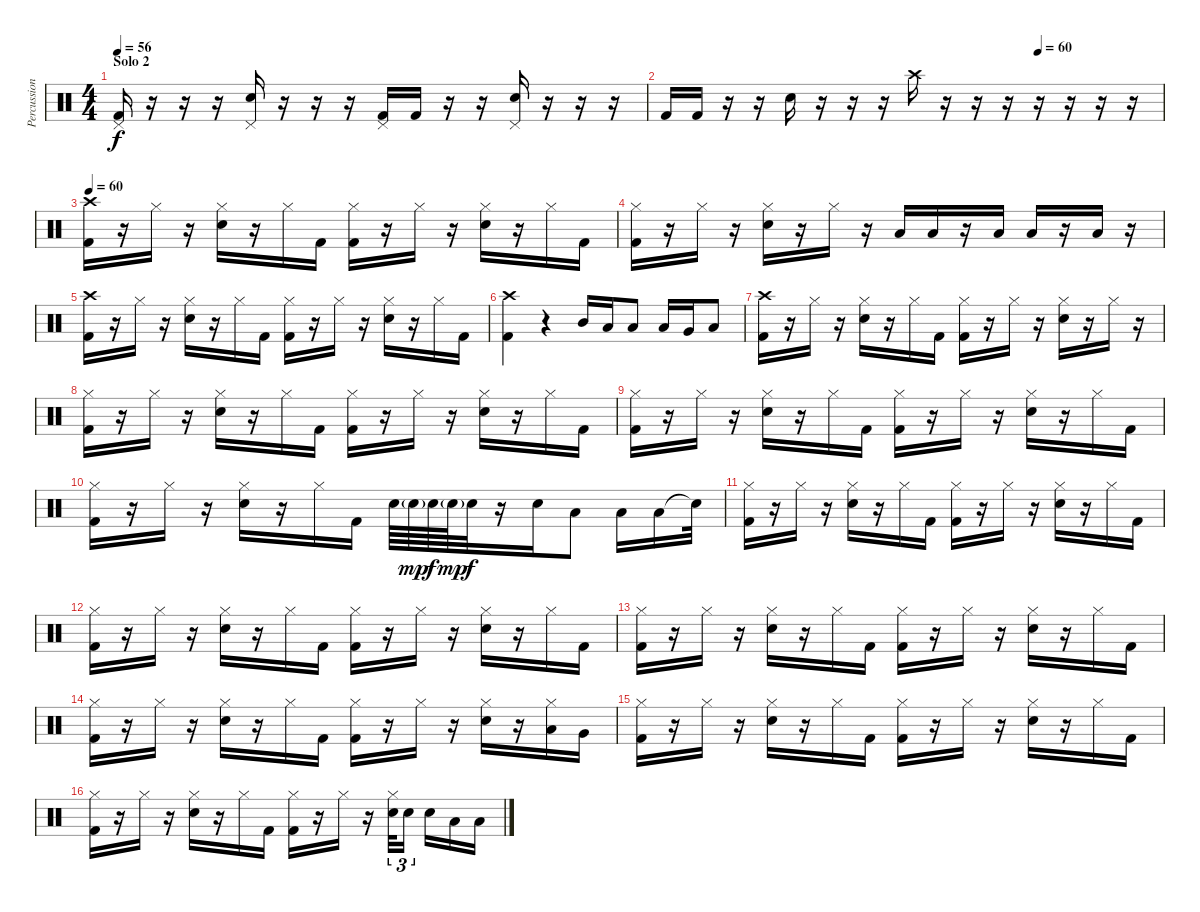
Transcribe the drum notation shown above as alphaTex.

\track ("Percussion" "Percussion") {instrument percussion}
\staff {score}
\articulation defaults
\ts (4 4)
\section ("" "Solo 2")
\tempo 56
\clef neutral
\ks c
("Pedal Hi-Hat (hit)" "Kick (hit) 2").16{dy f} r.16 r.16 r.16 ("Pedal Hi-Hat (hit)" "Snare (hit) 2").16 r.16 r.16 r.16 ("Pedal Hi-Hat (hit)" "Kick (hit) 2").16 "Kick (hit) 2".16 r.16 r.16 ("Pedal Hi-Hat (hit)" "Snare (hit) 2").16 r.16 r.16 r.16 |
\tempo (60 0.75)
"Kick (hit) 2".16 "Kick (hit) 2".16 r.16 r.16 "Snare (hit) 2".16 r.16 r.16 r.16 "Crash high (hit)".16 r.16 r.16 r.16 r.16 r.16 r.16 r.16 |
\tempo 60
("Crash high (hit)" "Kick (hit) 2").16 r.16 "Hi-Hat (closed)".16 r.16 ("Hi-Hat (closed)" "Snare (hit) 2").16 r.16 "Hi-Hat (closed)".16 "Kick (hit) 2".16 ("Hi-Hat (closed)" "Kick (hit) 2").16 r.16 "Hi-Hat (closed)".16 r.16 ("Hi-Hat (closed)" "Snare (hit) 2").16 r.16 "Hi-Hat (closed)".16 "Kick (hit) 2".16 |
("Hi-Hat (closed)" "Kick (hit) 2").16 r.16 "Hi-Hat (closed)".16 r.16 ("Hi-Hat (closed)" "Snare (hit) 2").16 r.16 "Hi-Hat (closed)".16 r.16 "Low Floor Tom (hit)".16{balance 0} "Low Tom (hit)".16{balance 1} r.16 "Low Tom (hit)".16{balance 2} "Low Tom (hit)".16{balance 2} r.16 "Low Tom (hit)".16{balance 16} r.16 |
("Crash high (hit)" "Kick (hit) 2").16{balance 8} r.16 "Hi-Hat (closed)".16 r.16 ("Hi-Hat (closed)" "Snare (hit) 2").16 r.16 "Hi-Hat (closed)".16 "Kick (hit) 2".16 ("Hi-Hat (closed)" "Kick (hit) 2").16 r.16 "Hi-Hat (closed)".16 r.16 ("Hi-Hat (closed)" "Snare (hit) 2").16 r.16 "Hi-Hat (closed)".16 "Kick (hit) 2".16 |
("Crash high (hit)" "Kick (hit) 2").4 r.4 "Mid Tom (hit)".16{balance 0} "Low Tom (hit)".16 "Low Tom (hit)".8 "Low Tom (hit)".16{balance 16} "Very Low Tom (hit)".16 "Low Floor Tom (hit)".8 |
("Crash high (hit)" "Kick (hit) 2").16{balance 8} r.16 "Hi-Hat (closed)".16 r.16 ("Hi-Hat (closed)" "Snare (hit) 2").16 r.16 "Hi-Hat (closed)".16 "Kick (hit) 2".16 ("Hi-Hat (closed)" "Kick (hit) 2").16 r.16 "Hi-Hat (closed)".16 r.16 ("Hi-Hat (closed)" "Snare (hit) 2").16 r.16 "Hi-Hat (closed)".16 r.16 |
("Hi-Hat (closed)" "Kick (hit) 2").16 r.16 "Hi-Hat (closed)".16 r.16 ("Hi-Hat (closed)" "Snare (hit) 2").16 r.16 "Hi-Hat (closed)".16 "Kick (hit) 2".16 ("Hi-Hat (closed)" "Kick (hit) 2").16 r.16 "Hi-Hat (closed)".16 r.16 ("Hi-Hat (closed)" "Snare (hit) 2").16 r.16 "Hi-Hat (closed)".16 "Kick (hit) 2".16 |
("Hi-Hat (closed)" "Kick (hit) 2").16 r.16 "Hi-Hat (closed)".16 r.16 ("Hi-Hat (closed)" "Snare (hit) 2").16 r.16 "Hi-Hat (closed)".16 "Kick (hit) 2".16 ("Hi-Hat (closed)" "Kick (hit) 2").16 r.16 "Hi-Hat (closed)".16 r.16 ("Hi-Hat (closed)" "Snare (hit) 2").16 r.16 "Hi-Hat (closed)".16 "Kick (hit) 2".16 |
("Hi-Hat (closed)" "Kick (hit) 2").16 r.16 "Hi-Hat (closed)".16 r.16 ("Hi-Hat (closed)" "Snare (hit) 2").16 r.16 "Hi-Hat (closed)".16 "Kick (hit) 2".16 "Snare (hit) 2".64 "Snare (hit) 2"{g}.64{dy mp} "Snare (hit) 2".64{dy f} "Snare (hit) 2"{g}.64{dy mp} "Snare (hit) 2".32{dy f} r.16 "Snare (hit) 2".16 "Low Tom (hit)".8{balance 0} "Low Tom (hit)".16{balance 16} "Low Floor Tom (hit)".16{balance 16} "Snare (hit)"{t}.32 |
("Hi-Hat (closed)" "Kick (hit) 2").16{balance 8} r.16 "Hi-Hat (closed)".16 r.16 ("Hi-Hat (closed)" "Snare (hit) 2").16 r.16 "Hi-Hat (closed)".16 "Kick (hit) 2".16 ("Hi-Hat (closed)" "Kick (hit) 2").16 r.16 "Hi-Hat (closed)".16 r.16 ("Hi-Hat (closed)" "Snare (hit) 2").16 r.16 "Hi-Hat (closed)".16 "Kick (hit) 2".16 |
("Hi-Hat (closed)" "Kick (hit) 2").16 r.16 "Hi-Hat (closed)".16 r.16 ("Hi-Hat (closed)" "Snare (hit) 2").16 r.16 "Hi-Hat (closed)".16 "Kick (hit) 2".16 ("Hi-Hat (closed)" "Kick (hit) 2").16 r.16 "Hi-Hat (closed)".16 r.16 ("Hi-Hat (closed)" "Snare (hit) 2").16 r.16 "Hi-Hat (closed)".16 "Kick (hit) 2".16 |
("Hi-Hat (closed)" "Kick (hit) 2").16 r.16 "Hi-Hat (closed)".16 r.16 ("Hi-Hat (closed)" "Snare (hit) 2").16 r.16 "Hi-Hat (closed)".16 "Kick (hit) 2".16 ("Hi-Hat (closed)" "Kick (hit) 2").16 r.16 "Hi-Hat (closed)".16 r.16 ("Hi-Hat (closed)" "Snare (hit) 2").16 r.16 "Hi-Hat (closed)".16 "Kick (hit) 2".16 |
("Hi-Hat (closed)" "Kick (hit) 2").16 r.16 "Hi-Hat (closed)".16 r.16 ("Hi-Hat (closed)" "Snare (hit) 2").16 r.16 "Hi-Hat (closed)".16 "Kick (hit) 2".16 ("Hi-Hat (closed)" "Kick (hit) 2").16 r.16 "Hi-Hat (closed)".16 r.16 ("Hi-Hat (closed)" "Snare (hit) 2").16 r.16 ("Hi-Hat (closed)" "Low Tom (hit)").16{balance 0} "Very Low Tom (hit)".16{balance 16} |
("Hi-Hat (closed)" "Kick (hit) 2").16{balance 8} r.16 "Hi-Hat (closed)".16 r.16 ("Hi-Hat (closed)" "Snare (hit) 2").16 r.16 "Hi-Hat (closed)".16 "Kick (hit) 2".16 ("Hi-Hat (closed)" "Kick (hit) 2").16 r.16 "Hi-Hat (closed)".16 r.16 ("Hi-Hat (closed)" "Snare (hit) 2").16 r.16 "Hi-Hat (closed)".16 "Kick (hit) 2".16 |
("Hi-Hat (closed)" "Kick (hit) 2").16 r.16 "Hi-Hat (closed)".16 r.16 ("Hi-Hat (closed)" "Snare (hit) 2").16 r.16 "Hi-Hat (closed)".16 "Kick (hit) 2".16 ("Hi-Hat (closed)" "Kick (hit) 2").16 r.16 "Hi-Hat (closed)".16 r.16 ("Hi-Hat (closed)" "Snare (hit) 2").32{tu (3 2)} "Snare (hit) 2".16{tu (3 2)} "Snare (hit) 2".16 "Low Tom (hit)".16{balance 16} "Low Floor Tom (hit)".16{balance 0}
